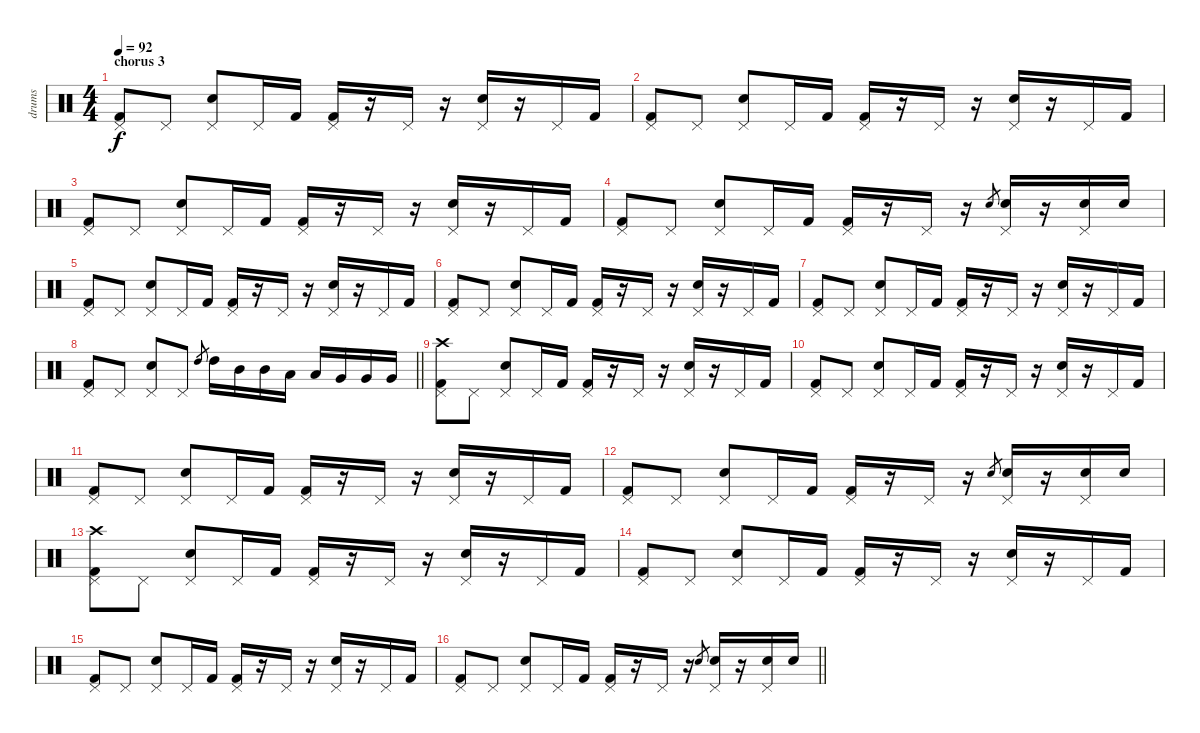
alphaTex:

\track ("drums" "drums") {instrument percussion}
\staff {score}
\articulation defaults
\ts (4 4)
\section ("" "chorus 3")
\tempo 92
\clef neutral
\ks c
("Kick (hit) 2" "Pedal Hi-Hat (hit)").8{dy f} "Pedal Hi-Hat (hit)".8 ("Electric Snare (hit)" "Pedal Hi-Hat (hit)").8 "Pedal Hi-Hat (hit)".16 "Kick (hit) 2".16 ("Kick (hit) 2" "Pedal Hi-Hat (hit)").16 r.16 "Pedal Hi-Hat (hit)".16 r.16 ("Electric Snare (hit)" "Pedal Hi-Hat (hit)").16 r.16 "Pedal Hi-Hat (hit)".16 "Kick (hit) 2".16 |
("Kick (hit) 2" "Pedal Hi-Hat (hit)").8 "Pedal Hi-Hat (hit)".8 ("Electric Snare (hit)" "Pedal Hi-Hat (hit)").8 "Pedal Hi-Hat (hit)".16 "Kick (hit) 2".16 ("Kick (hit) 2" "Pedal Hi-Hat (hit)").16 r.16 "Pedal Hi-Hat (hit)".16 r.16 ("Electric Snare (hit)" "Pedal Hi-Hat (hit)").16 r.16 "Pedal Hi-Hat (hit)".16 "Kick (hit) 2".16 |
("Kick (hit) 2" "Pedal Hi-Hat (hit)").8 "Pedal Hi-Hat (hit)".8 ("Electric Snare (hit)" "Pedal Hi-Hat (hit)").8 "Pedal Hi-Hat (hit)".16 "Kick (hit) 2".16 ("Kick (hit) 2" "Pedal Hi-Hat (hit)").16 r.16 "Pedal Hi-Hat (hit)".16 r.16 ("Electric Snare (hit)" "Pedal Hi-Hat (hit)").16 r.16 "Pedal Hi-Hat (hit)".16 "Kick (hit) 2".16 |
("Kick (hit) 2" "Pedal Hi-Hat (hit)").8 "Pedal Hi-Hat (hit)".8 ("Electric Snare (hit)" "Pedal Hi-Hat (hit)").8 "Pedal Hi-Hat (hit)".16 "Kick (hit) 2".16 ("Kick (hit) 2" "Pedal Hi-Hat (hit)").16 r.16 "Pedal Hi-Hat (hit)".16 r.16 "Electric Snare (hit)".8{gr} ("Electric Snare (hit)" "Pedal Hi-Hat (hit)").16 r.16 ("Electric Snare (hit)" "Pedal Hi-Hat (hit)").16 "Electric Snare (hit)".16 |
("Kick (hit) 2" "Pedal Hi-Hat (hit)").8 "Pedal Hi-Hat (hit)".8 ("Electric Snare (hit)" "Pedal Hi-Hat (hit)").8 "Pedal Hi-Hat (hit)".16 "Kick (hit) 2".16 ("Kick (hit) 2" "Pedal Hi-Hat (hit)").16 r.16 "Pedal Hi-Hat (hit)".16 r.16 ("Electric Snare (hit)" "Pedal Hi-Hat (hit)").16 r.16 "Pedal Hi-Hat (hit)".16 "Kick (hit) 2".16 |
("Kick (hit) 2" "Pedal Hi-Hat (hit)").8 "Pedal Hi-Hat (hit)".8 ("Electric Snare (hit)" "Pedal Hi-Hat (hit)").8 "Pedal Hi-Hat (hit)".16 "Kick (hit) 2".16 ("Kick (hit) 2" "Pedal Hi-Hat (hit)").16 r.16 "Pedal Hi-Hat (hit)".16 r.16 ("Electric Snare (hit)" "Pedal Hi-Hat (hit)").16 r.16 "Pedal Hi-Hat (hit)".16 "Kick (hit) 2".16 |
("Kick (hit) 2" "Pedal Hi-Hat (hit)").8 "Pedal Hi-Hat (hit)".8 ("Electric Snare (hit)" "Pedal Hi-Hat (hit)").8 "Pedal Hi-Hat (hit)".16 "Kick (hit) 2".16 ("Kick (hit) 2" "Pedal Hi-Hat (hit)").16 r.16 "Pedal Hi-Hat (hit)".16 r.16 ("Electric Snare (hit)" "Pedal Hi-Hat (hit)").16 r.16 "Pedal Hi-Hat (hit)".16 "Kick (hit) 2".16 |
\barLineRight lightlight
("Kick (hit) 2" "Pedal Hi-Hat (hit)").8 "Pedal Hi-Hat (hit)".8 ("Electric Snare (hit)" "Pedal Hi-Hat (hit)").8 "Pedal Hi-Hat (hit)".8 "High Tom (hit)".8{gr} "High Tom (hit)".16 "Mid Tom (hit)".16 "Mid Tom (hit)".16 "Low Tom (hit)".16 "Low Tom (hit)".16 "Very Low Tom (hit)".16 "Very Low Tom (hit)".16 "Very Low Tom (hit)".16 |
("Kick (hit) 2" "Pedal Hi-Hat (hit)" "Crash high (hit)").8 "Pedal Hi-Hat (hit)".8 ("Electric Snare (hit)" "Pedal Hi-Hat (hit)").8 "Pedal Hi-Hat (hit)".16 "Kick (hit) 2".16 ("Kick (hit) 2" "Pedal Hi-Hat (hit)").16 r.16 "Pedal Hi-Hat (hit)".16 r.16 ("Electric Snare (hit)" "Pedal Hi-Hat (hit)").16 r.16 "Pedal Hi-Hat (hit)".16 "Kick (hit) 2".16 |
("Kick (hit) 2" "Pedal Hi-Hat (hit)").8 "Pedal Hi-Hat (hit)".8 ("Electric Snare (hit)" "Pedal Hi-Hat (hit)").8 "Pedal Hi-Hat (hit)".16 "Kick (hit) 2".16 ("Kick (hit) 2" "Pedal Hi-Hat (hit)").16 r.16 "Pedal Hi-Hat (hit)".16 r.16 ("Electric Snare (hit)" "Pedal Hi-Hat (hit)").16 r.16 "Pedal Hi-Hat (hit)".16 "Kick (hit) 2".16 |
("Kick (hit) 2" "Pedal Hi-Hat (hit)").8 "Pedal Hi-Hat (hit)".8 ("Electric Snare (hit)" "Pedal Hi-Hat (hit)").8 "Pedal Hi-Hat (hit)".16 "Kick (hit) 2".16 ("Kick (hit) 2" "Pedal Hi-Hat (hit)").16 r.16 "Pedal Hi-Hat (hit)".16 r.16 ("Electric Snare (hit)" "Pedal Hi-Hat (hit)").16 r.16 "Pedal Hi-Hat (hit)".16 "Kick (hit) 2".16 |
("Kick (hit) 2" "Pedal Hi-Hat (hit)").8 "Pedal Hi-Hat (hit)".8 ("Electric Snare (hit)" "Pedal Hi-Hat (hit)").8 "Pedal Hi-Hat (hit)".16 "Kick (hit) 2".16 ("Kick (hit) 2" "Pedal Hi-Hat (hit)").16 r.16 "Pedal Hi-Hat (hit)".16 r.16 "Electric Snare (hit)".8{gr} ("Electric Snare (hit)" "Pedal Hi-Hat (hit)").16 r.16 ("Electric Snare (hit)" "Pedal Hi-Hat (hit)").16 "Electric Snare (hit)".16 |
("Kick (hit) 2" "Pedal Hi-Hat (hit)" "Crash high (hit)").8 "Pedal Hi-Hat (hit)".8 ("Electric Snare (hit)" "Pedal Hi-Hat (hit)").8 "Pedal Hi-Hat (hit)".16 "Kick (hit) 2".16 ("Kick (hit) 2" "Pedal Hi-Hat (hit)").16 r.16 "Pedal Hi-Hat (hit)".16 r.16 ("Electric Snare (hit)" "Pedal Hi-Hat (hit)").16 r.16 "Pedal Hi-Hat (hit)".16 "Kick (hit) 2".16 |
("Kick (hit) 2" "Pedal Hi-Hat (hit)").8 "Pedal Hi-Hat (hit)".8 ("Electric Snare (hit)" "Pedal Hi-Hat (hit)").8 "Pedal Hi-Hat (hit)".16 "Kick (hit) 2".16 ("Kick (hit) 2" "Pedal Hi-Hat (hit)").16 r.16 "Pedal Hi-Hat (hit)".16 r.16 ("Electric Snare (hit)" "Pedal Hi-Hat (hit)").16 r.16 "Pedal Hi-Hat (hit)".16 "Kick (hit) 2".16 |
("Kick (hit) 2" "Pedal Hi-Hat (hit)").8 "Pedal Hi-Hat (hit)".8 ("Electric Snare (hit)" "Pedal Hi-Hat (hit)").8 "Pedal Hi-Hat (hit)".16 "Kick (hit) 2".16 ("Kick (hit) 2" "Pedal Hi-Hat (hit)").16 r.16 "Pedal Hi-Hat (hit)".16 r.16 ("Electric Snare (hit)" "Pedal Hi-Hat (hit)").16 r.16 "Pedal Hi-Hat (hit)".16 "Kick (hit) 2".16 |
\barLineRight lightlight
("Kick (hit) 2" "Pedal Hi-Hat (hit)").8 "Pedal Hi-Hat (hit)".8 ("Electric Snare (hit)" "Pedal Hi-Hat (hit)").8 "Pedal Hi-Hat (hit)".16 "Kick (hit) 2".16 ("Kick (hit) 2" "Pedal Hi-Hat (hit)").16 r.16 "Pedal Hi-Hat (hit)".16 r.16 "Electric Snare (hit)".8{gr} ("Electric Snare (hit)" "Pedal Hi-Hat (hit)").16 r.16 ("Electric Snare (hit)" "Pedal Hi-Hat (hit)").16 "Electric Snare (hit)".16
